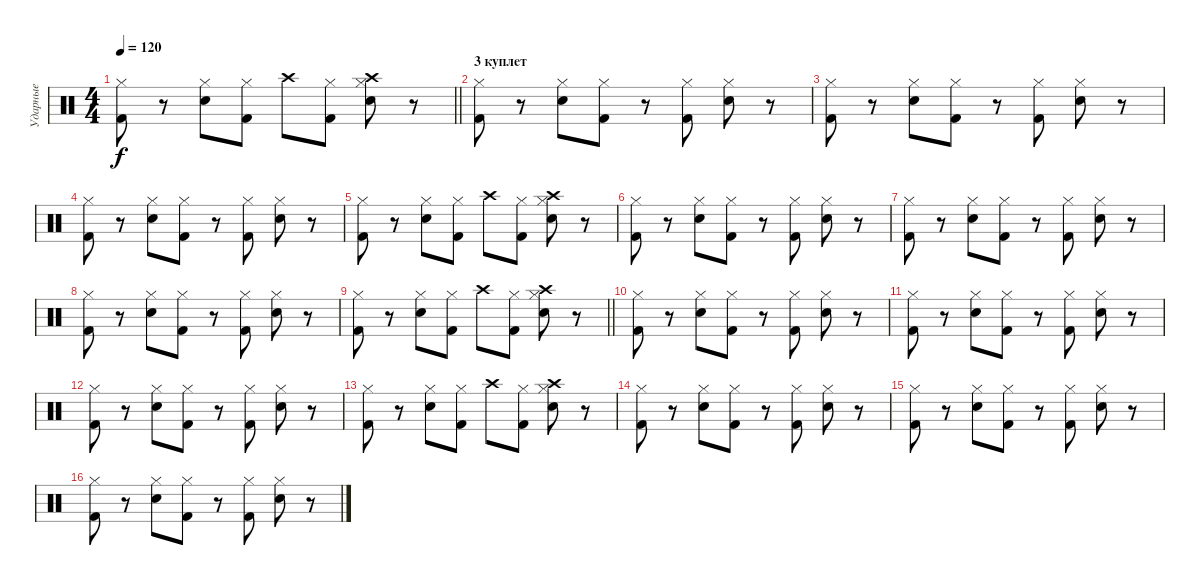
\track ("Ударные" "Ударные") {instrument percussion}
\staff {score}
\articulation defaults
\ts (4 4)
\tempo 120
\clef neutral
\barLineRight lightlight
\ks c
("Kick (hit) 2" "Hi-Hat (closed)").8{dy f} r.8 ("Snare (hit) 2" "Hi-Hat (closed)").8 ("Kick (hit) 2" "Hi-Hat (closed)").8 "Crash high (hit)".8 ("Kick (hit) 2" "Hi-Hat (closed)").8 ("Snare (hit) 2" "Hi-Hat (closed)" "Crash high (hit)").8 r.8 |
\section ("" "3 куплет")
("Kick (hit) 2" "Hi-Hat (closed)").8 r.8 ("Snare (hit) 2" "Hi-Hat (closed)").8 ("Kick (hit) 2" "Hi-Hat (closed)").8 r.8 ("Kick (hit) 2" "Hi-Hat (closed)").8 ("Snare (hit) 2" "Hi-Hat (closed)").8 r.8 |
("Kick (hit) 2" "Hi-Hat (closed)").8 r.8 ("Snare (hit) 2" "Hi-Hat (closed)").8 ("Kick (hit) 2" "Hi-Hat (closed)").8 r.8 ("Kick (hit) 2" "Hi-Hat (closed)").8 ("Snare (hit) 2" "Hi-Hat (closed)").8 r.8 |
("Kick (hit) 2" "Hi-Hat (closed)").8 r.8 ("Snare (hit) 2" "Hi-Hat (closed)").8 ("Kick (hit) 2" "Hi-Hat (closed)").8 r.8 ("Kick (hit) 2" "Hi-Hat (closed)").8 ("Snare (hit) 2" "Hi-Hat (closed)").8 r.8 |
("Kick (hit) 2" "Hi-Hat (closed)").8 r.8 ("Snare (hit) 2" "Hi-Hat (closed)").8 ("Kick (hit) 2" "Hi-Hat (closed)").8 "Crash high (hit)".8 ("Kick (hit) 2" "Hi-Hat (closed)").8 ("Snare (hit) 2" "Hi-Hat (closed)" "Crash high (hit)").8 r.8 |
("Kick (hit) 2" "Hi-Hat (closed)").8 r.8 ("Snare (hit) 2" "Hi-Hat (closed)").8 ("Kick (hit) 2" "Hi-Hat (closed)").8 r.8 ("Kick (hit) 2" "Hi-Hat (closed)").8 ("Snare (hit) 2" "Hi-Hat (closed)").8 r.8 |
("Kick (hit) 2" "Hi-Hat (closed)").8 r.8 ("Snare (hit) 2" "Hi-Hat (closed)").8 ("Kick (hit) 2" "Hi-Hat (closed)").8 r.8 ("Kick (hit) 2" "Hi-Hat (closed)").8 ("Snare (hit) 2" "Hi-Hat (closed)").8 r.8 |
("Kick (hit) 2" "Hi-Hat (closed)").8 r.8 ("Snare (hit) 2" "Hi-Hat (closed)").8 ("Kick (hit) 2" "Hi-Hat (closed)").8 r.8 ("Kick (hit) 2" "Hi-Hat (closed)").8 ("Snare (hit) 2" "Hi-Hat (closed)").8 r.8 |
\barLineRight lightlight
("Kick (hit) 2" "Hi-Hat (closed)").8 r.8 ("Snare (hit) 2" "Hi-Hat (closed)").8 ("Kick (hit) 2" "Hi-Hat (closed)").8 "Crash high (hit)".8 ("Kick (hit) 2" "Hi-Hat (closed)").8 ("Snare (hit) 2" "Hi-Hat (closed)" "Crash high (hit)").8 r.8 |
("Kick (hit) 2" "Hi-Hat (closed)").8 r.8 ("Snare (hit) 2" "Hi-Hat (closed)").8 ("Kick (hit) 2" "Hi-Hat (closed)").8 r.8 ("Kick (hit) 2" "Hi-Hat (closed)").8 ("Snare (hit) 2" "Hi-Hat (closed)").8 r.8 |
("Kick (hit) 2" "Hi-Hat (closed)").8 r.8 ("Snare (hit) 2" "Hi-Hat (closed)").8 ("Kick (hit) 2" "Hi-Hat (closed)").8 r.8 ("Kick (hit) 2" "Hi-Hat (closed)").8 ("Snare (hit) 2" "Hi-Hat (closed)").8 r.8 |
("Kick (hit) 2" "Hi-Hat (closed)").8 r.8 ("Snare (hit) 2" "Hi-Hat (closed)").8 ("Kick (hit) 2" "Hi-Hat (closed)").8 r.8 ("Kick (hit) 2" "Hi-Hat (closed)").8 ("Snare (hit) 2" "Hi-Hat (closed)").8 r.8 |
("Kick (hit) 2" "Hi-Hat (closed)").8 r.8 ("Snare (hit) 2" "Hi-Hat (closed)").8 ("Kick (hit) 2" "Hi-Hat (closed)").8 "Crash high (hit)".8 ("Kick (hit) 2" "Hi-Hat (closed)").8 ("Snare (hit) 2" "Hi-Hat (closed)" "Crash high (hit)").8 r.8 |
("Kick (hit) 2" "Hi-Hat (closed)").8 r.8 ("Snare (hit) 2" "Hi-Hat (closed)").8 ("Kick (hit) 2" "Hi-Hat (closed)").8 r.8 ("Kick (hit) 2" "Hi-Hat (closed)").8 ("Snare (hit) 2" "Hi-Hat (closed)").8 r.8 |
("Kick (hit) 2" "Hi-Hat (closed)").8 r.8 ("Snare (hit) 2" "Hi-Hat (closed)").8 ("Kick (hit) 2" "Hi-Hat (closed)").8 r.8 ("Kick (hit) 2" "Hi-Hat (closed)").8 ("Snare (hit) 2" "Hi-Hat (closed)").8 r.8 |
("Kick (hit) 2" "Hi-Hat (closed)").8 r.8 ("Snare (hit) 2" "Hi-Hat (closed)").8 ("Kick (hit) 2" "Hi-Hat (closed)").8 r.8 ("Kick (hit) 2" "Hi-Hat (closed)").8 ("Snare (hit) 2" "Hi-Hat (closed)").8 r.8
